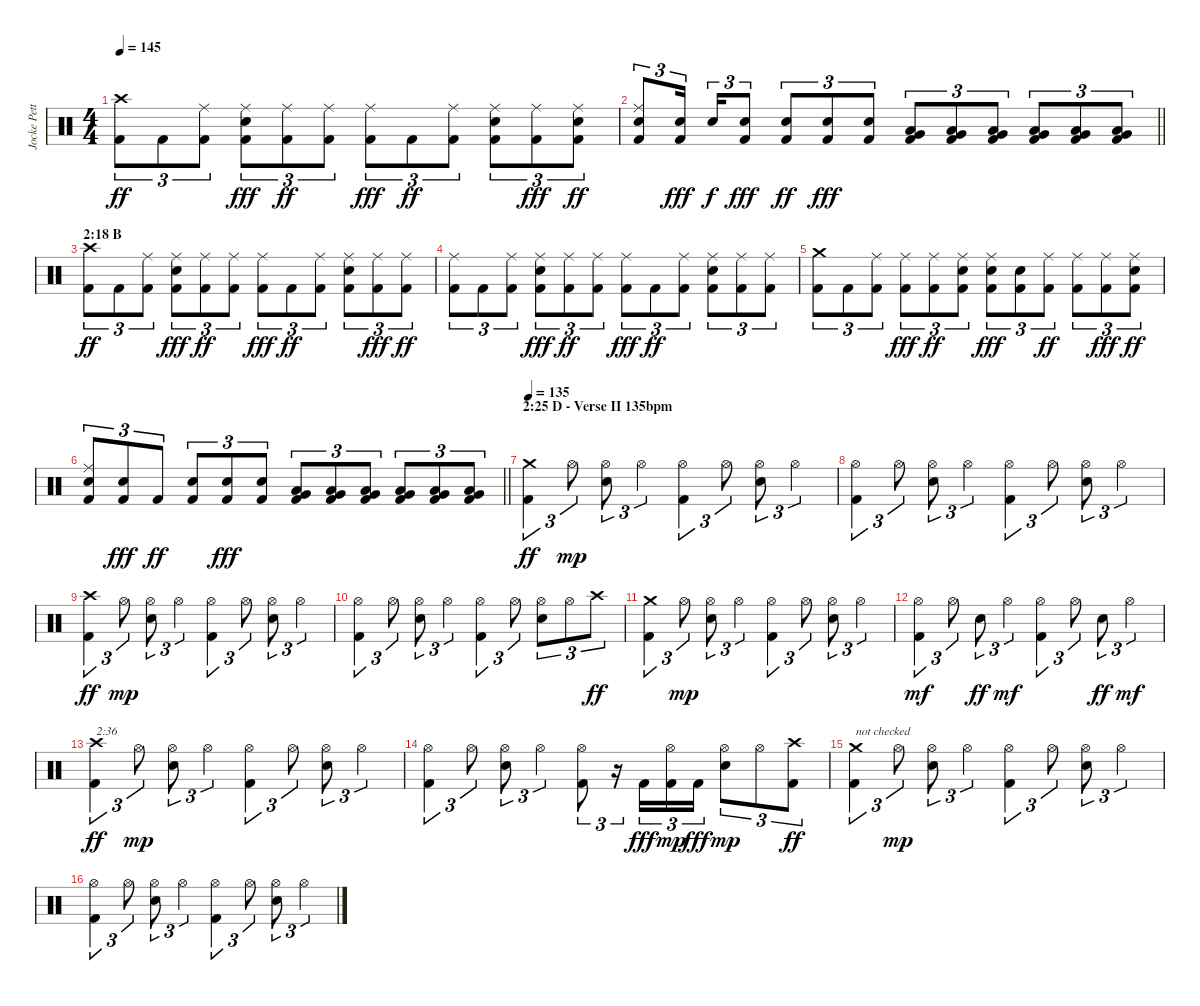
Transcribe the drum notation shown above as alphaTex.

\track ("Jocke Pettersson" "Jocke Pett") {instrument percussion}
\staff {score}
\articulation defaults
\ts (4 4)
\tempo 145
\clef neutral
\ks c
("Kick (hit) 2" "Crash high (hit)").8{tu (3 2) dy ff} "Kick (hit) 2".8{tu (3 2)} ("Kick (hit) 2" "Ride (middle)").8{tu (3 2)} ("Kick (hit) 2" "Electric Snare (hit)" "Ride (middle)").8{tu (3 2) dy fff} ("Kick (hit) 2" "Ride (middle)").8{tu (3 2) dy ff} ("Kick (hit) 2" "Ride (middle)").8{tu (3 2)} ("Kick (hit) 2" "Ride (middle)").8{tu (3 2) dy fff} "Kick (hit) 2".8{tu (3 2) dy ff} ("Kick (hit) 2" "Ride (middle)").8{tu (3 2)} ("Kick (hit) 2" "Electric Snare (hit)" "Ride (middle)").8{tu (3 2)} ("Kick (hit) 2" "Ride (middle)").8{tu (3 2) dy fff} ("Kick (hit) 2" "Electric Snare (hit)" "Ride (middle)").8{tu (3 2) dy ff} |
\barLineRight lightlight
("Kick (hit) 2" "Electric Snare (hit)" "Ride (middle)").8{tu (3 2)} ("Kick (hit) 2" "Electric Snare (hit)").16{tu (3 2) dy fff beam splitsecondary} "Electric Snare (hit)".16{tu (3 2) dy f} ("Kick (hit) 2" "Electric Snare (hit)").8{tu (3 2) dy fff} ("Kick (hit) 2" "Electric Snare (hit)").8{tu (3 2) dy ff} ("Kick (hit) 2" "Electric Snare (hit)").8{tu (3 2) dy fff} ("Kick (hit) 2" "Electric Snare (hit)").8{tu (3 2)} ("Kick (hit) 2" "Low Tom (hit)" "Very Low Tom (hit)").8{tu (3 2)} ("Kick (hit) 2" "Low Tom (hit)" "Very Low Tom (hit)").8{tu (3 2)} ("Kick (hit) 2" "Low Tom (hit)" "Very Low Tom (hit)").8{tu (3 2)} ("Kick (hit) 2" "Very Low Tom (hit)" "Low Floor Tom (hit)").8{tu (3 2)} ("Kick (hit) 2" "Very Low Tom (hit)" "Low Floor Tom (hit)").8{tu (3 2)} ("Kick (hit) 2" "Very Low Tom (hit)" "Low Floor Tom (hit)").8{tu (3 2)} |
\section ("" "2:18 B")
("Kick (hit) 2" "Crash high (hit)").8{tu (3 2) dy ff} "Kick (hit) 2".8{tu (3 2)} ("Kick (hit) 2" "Ride (middle)").8{tu (3 2)} ("Kick (hit) 2" "Electric Snare (hit)" "Ride (middle)").8{tu (3 2) dy fff} ("Kick (hit) 2" "Ride (middle)").8{tu (3 2) dy ff} ("Kick (hit) 2" "Ride (middle)").8{tu (3 2)} ("Kick (hit) 2" "Ride (middle)").8{tu (3 2) dy fff} "Kick (hit) 2".8{tu (3 2) dy ff} ("Kick (hit) 2" "Ride (middle)").8{tu (3 2)} ("Kick (hit) 2" "Electric Snare (hit)" "Ride (middle)").8{tu (3 2)} ("Kick (hit) 2" "Ride (middle)").8{tu (3 2) dy fff} ("Kick (hit) 2" "Ride (middle)").8{tu (3 2) dy ff} |
("Kick (hit) 2" "Ride (middle)").8{tu (3 2)} "Kick (hit) 2".8{tu (3 2)} ("Kick (hit) 2" "Ride (middle)").8{tu (3 2)} ("Kick (hit) 2" "Electric Snare (hit)" "Ride (middle)").8{tu (3 2) dy fff} ("Kick (hit) 2" "Ride (middle)").8{tu (3 2) dy ff} ("Kick (hit) 2" "Ride (middle)").8{tu (3 2)} ("Kick (hit) 2" "Ride (middle)").8{tu (3 2) dy fff} "Kick (hit) 2".8{tu (3 2) dy ff} ("Kick (hit) 2" "Ride (middle)").8{tu (3 2)} ("Kick (hit) 2" "Electric Snare (hit)" "Ride (middle)").8{tu (3 2)} ("Kick (hit) 2" "Ride (middle)").8{tu (3 2)} ("Kick (hit) 2" "Ride (middle)").8{tu (3 2)} |
("Kick (hit) 2" "Crash medium (hit)").8{tu (3 2)} "Kick (hit) 2".8{tu (3 2)} ("Kick (hit) 2" "Ride (middle)").8{tu (3 2)} ("Kick (hit) 2" "Ride (middle)").8{tu (3 2) dy fff} ("Kick (hit) 2" "Ride (middle)").8{tu (3 2) dy ff} ("Kick (hit) 2" "Electric Snare (hit)" "Ride (middle)").8{tu (3 2)} ("Kick (hit) 2" "Electric Snare (hit)" "Ride (middle)").8{tu (3 2) dy fff} ("Kick (hit) 2" "Electric Snare (hit)").8{tu (3 2)} ("Kick (hit) 2" "Ride (middle)").8{tu (3 2) dy ff} ("Kick (hit) 2" "Ride (middle)").8{tu (3 2)} ("Kick (hit) 2" "Ride (middle)").8{tu (3 2) dy fff} ("Kick (hit) 2" "Electric Snare (hit)" "Ride (middle)").8{tu (3 2) dy ff} |
\barLineRight lightlight
("Kick (hit) 2" "Electric Snare (hit)" "Ride (middle)").8{tu (3 2)} ("Kick (hit) 2" "Electric Snare (hit)").8{tu (3 2) dy fff} "Kick (hit) 2".8{tu (3 2) dy ff} ("Kick (hit) 2" "Electric Snare (hit)").8{tu (3 2)} ("Kick (hit) 2" "Electric Snare (hit)").8{tu (3 2) dy fff} ("Kick (hit) 2" "Electric Snare (hit)").8{tu (3 2)} ("Kick (hit) 2" "Low Tom (hit)" "Very Low Tom (hit)").8{tu (3 2)} ("Kick (hit) 2" "Low Tom (hit)" "Very Low Tom (hit)").8{tu (3 2)} ("Kick (hit) 2" "Low Tom (hit)" "Very Low Tom (hit)").8{tu (3 2)} ("Kick (hit) 2" "Very Low Tom (hit)" "Low Floor Tom (hit)").8{tu (3 2)} ("Kick (hit) 2" "Very Low Tom (hit)" "Low Floor Tom (hit)").8{tu (3 2)} ("Kick (hit) 2" "Very Low Tom (hit)" "Low Floor Tom (hit)").8{tu (3 2)} |
\section ("" "2:25 D - Verse II 135bpm")
\tempo 135
("Kick (hit) 2" "Crash medium (hit)").4{tu (3 2) dy ff} "Hi-Hat (open)".8{tu (3 2) dy mp} ("Electric Snare (hit)" "Hi-Hat (open)").8{tu (3 2)} "Hi-Hat (open)".4{tu (3 2)} ("Kick (hit) 2" "Hi-Hat (open)").4{tu (3 2)} "Hi-Hat (open)".8{tu (3 2)} ("Electric Snare (hit)" "Hi-Hat (open)").8{tu (3 2)} "Hi-Hat (open)".4{tu (3 2)} |
("Kick (hit) 2" "Hi-Hat (open)").4{tu (3 2)} "Hi-Hat (open)".8{tu (3 2)} ("Electric Snare (hit)" "Hi-Hat (open)").8{tu (3 2)} "Hi-Hat (open)".4{tu (3 2)} ("Kick (hit) 2" "Hi-Hat (open)").4{tu (3 2)} "Hi-Hat (open)".8{tu (3 2)} ("Electric Snare (hit)" "Hi-Hat (open)").8{tu (3 2)} "Hi-Hat (open)".4{tu (3 2)} |
("Kick (hit) 2" "Crash high (hit)").4{tu (3 2) dy ff} "Hi-Hat (open)".8{tu (3 2) dy mp} ("Electric Snare (hit)" "Hi-Hat (open)").8{tu (3 2)} "Hi-Hat (open)".4{tu (3 2)} ("Kick (hit) 2" "Hi-Hat (open)").4{tu (3 2)} "Hi-Hat (open)".8{tu (3 2)} ("Electric Snare (hit)" "Hi-Hat (open)").8{tu (3 2)} "Hi-Hat (open)".4{tu (3 2)} |
("Kick (hit) 2" "Hi-Hat (open)").4{tu (3 2)} "Hi-Hat (open)".8{tu (3 2)} ("Electric Snare (hit)" "Hi-Hat (open)").8{tu (3 2)} "Hi-Hat (open)".4{tu (3 2)} ("Kick (hit) 2" "Hi-Hat (open)").4{tu (3 2)} "Hi-Hat (open)".8{tu (3 2)} ("Electric Snare (hit)" "Hi-Hat (open)").8{tu (3 2)} "Hi-Hat (open)".8{tu (3 2)} "Crash high (hit)".8{tu (3 2) dy ff} |
("Kick (hit) 2" "Crash medium (hit)").4{tu (3 2)} "Hi-Hat (open)".8{tu (3 2) dy mp} ("Electric Snare (hit)" "Hi-Hat (open)").8{tu (3 2)} "Hi-Hat (open)".4{tu (3 2)} ("Kick (hit) 2" "Hi-Hat (open)").4{tu (3 2)} "Hi-Hat (open)".8{tu (3 2)} ("Electric Snare (hit)" "Hi-Hat (open)").8{tu (3 2)} "Hi-Hat (open)".4{tu (3 2)} |
("Kick (hit) 2" "Hi-Hat (open)").4{tu (3 2) dy mf} "Hi-Hat (open)".8{tu (3 2)} "Electric Snare (hit)".8{tu (3 2) dy ff} "Hi-Hat (open)".4{tu (3 2) dy mf} ("Kick (hit) 2" "Hi-Hat (open)").4{tu (3 2)} "Hi-Hat (open)".8{tu (3 2)} "Electric Snare (hit)".8{tu (3 2) dy ff} "Hi-Hat (open)".4{tu (3 2) dy mf} |
("Kick (hit) 2" "Crash high (hit)").4{tu (3 2) txt "2:36" dy ff} "Hi-Hat (open)".8{tu (3 2) dy mp} ("Electric Snare (hit)" "Hi-Hat (open)").8{tu (3 2)} "Hi-Hat (open)".4{tu (3 2)} ("Kick (hit) 2" "Hi-Hat (open)").4{tu (3 2)} "Hi-Hat (open)".8{tu (3 2)} ("Electric Snare (hit)" "Hi-Hat (open)").8{tu (3 2)} "Hi-Hat (open)".4{tu (3 2)} |
("Kick (hit) 2" "Hi-Hat (open)").4{tu (3 2)} "Hi-Hat (open)".8{tu (3 2)} ("Electric Snare (hit)" "Hi-Hat (open)").8{tu (3 2)} "Hi-Hat (open)".4{tu (3 2)} ("Kick (hit) 2" "Hi-Hat (open)").8{tu (3 2)} r.16{tu (3 2)} "Kick (hit) 2".16{tu (3 2) dy fff} ("Kick (hit) 2" "Hi-Hat (open)").16{tu (3 2) dy mp} "Kick (hit) 2".16{tu (3 2) dy fff} ("Electric Snare (hit)" "Hi-Hat (open)").8{tu (3 2) dy mp} "Hi-Hat (open)".8{tu (3 2)} ("Kick (hit) 2" "Crash high (hit)").8{tu (3 2) dy ff} |
("Kick (hit) 2" "Crash medium (hit)").4{tu (3 2) txt "not checked"} "Hi-Hat (open)".8{tu (3 2) dy mp} ("Electric Snare (hit)" "Hi-Hat (open)").8{tu (3 2)} "Hi-Hat (open)".4{tu (3 2)} ("Kick (hit) 2" "Hi-Hat (open)").4{tu (3 2)} "Hi-Hat (open)".8{tu (3 2)} ("Electric Snare (hit)" "Hi-Hat (open)").8{tu (3 2)} "Hi-Hat (open)".4{tu (3 2)} |
("Kick (hit) 2" "Hi-Hat (open)").4{tu (3 2)} "Hi-Hat (open)".8{tu (3 2)} ("Electric Snare (hit)" "Hi-Hat (open)").8{tu (3 2)} "Hi-Hat (open)".4{tu (3 2)} ("Kick (hit) 2" "Hi-Hat (open)").4{tu (3 2)} "Hi-Hat (open)".8{tu (3 2)} ("Electric Snare (hit)" "Hi-Hat (open)").8{tu (3 2)} "Hi-Hat (open)".4{tu (3 2)}
